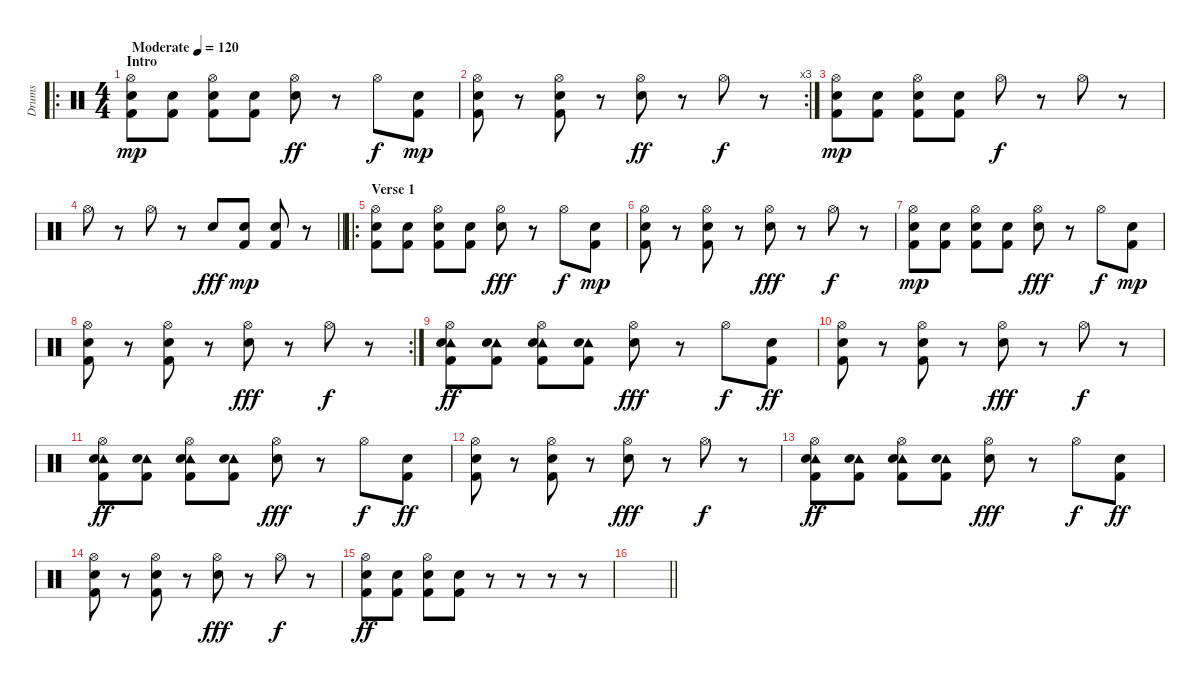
\track ("Drums" "Drums") {instrument percussion}
\staff {score}
\articulation defaults
\ro
\ts (4 4)
\section ("" "Intro")
\tempo (120 "Moderate")
\clef neutral
\ks c
("Hi-Hat (open)" "Electric Snare (hit)" "Kick (hit) 2").8{dy mp} ("Electric Snare (hit)" "Kick (hit) 2").8 ("Hi-Hat (open)" "Electric Snare (hit)" "Kick (hit) 2").8 ("Electric Snare (hit)" "Kick (hit) 2").8 ("Hi-Hat (open)" "Electric Snare (hit)").8{dy ff} r.8 "Hi-Hat (open)".8{dy f} ("Electric Snare (hit)" "Kick (hit) 2").8{dy mp} |
\rc 3
("Hi-Hat (open)" "Electric Snare (hit)" "Kick (hit) 2").8 r.8 ("Hi-Hat (open)" "Electric Snare (hit)" "Kick (hit) 2").8 r.8 ("Hi-Hat (open)" "Electric Snare (hit)").8{dy ff} r.8 "Hi-Hat (open)".8{dy f} r.8 |
("Hi-Hat (open)" "Electric Snare (hit)" "Kick (hit) 2").8{dy mp} ("Electric Snare (hit)" "Kick (hit) 2").8 ("Hi-Hat (open)" "Electric Snare (hit)" "Kick (hit) 2").8 ("Electric Snare (hit)" "Kick (hit) 2").8 "Hi-Hat (open)".8{dy f} r.8 "Hi-Hat (open)".8 r.8 |
\barLineRight lightlight "Hi-Hat (open)".8
r.8 "Hi-Hat (open)".8 r.8 "Electric Snare (hit)".8{dy fff} ("Electric Snare (hit)" "Kick (hit) 2").8{dy mp} ("Electric Snare (hit)" "Kick (hit) 2").8 r.8 |
\ro
\section ("" "Verse 1")
("Hi-Hat (open)" "Electric Snare (hit)" "Kick (hit) 2").8 ("Electric Snare (hit)" "Kick (hit) 2").8 ("Hi-Hat (open)" "Electric Snare (hit)" "Kick (hit) 2").8 ("Electric Snare (hit)" "Kick (hit) 2").8 ("Hi-Hat (open)" "Electric Snare (hit)").8{dy fff} r.8 "Hi-Hat (open)".8{dy f} ("Electric Snare (hit)" "Kick (hit) 2").8{dy mp} |
("Hi-Hat (open)" "Electric Snare (hit)" "Kick (hit) 2").8 r.8 ("Hi-Hat (open)" "Electric Snare (hit)" "Kick (hit) 2").8 r.8 ("Hi-Hat (open)" "Electric Snare (hit)").8{dy fff} r.8 "Hi-Hat (open)".8{dy f} r.8 |
("Hi-Hat (open)" "Electric Snare (hit)" "Kick (hit) 2").8{dy mp} ("Electric Snare (hit)" "Kick (hit) 2").8 ("Hi-Hat (open)" "Electric Snare (hit)" "Kick (hit) 2").8 ("Electric Snare (hit)" "Kick (hit) 2").8 ("Hi-Hat (open)" "Electric Snare (hit)").8{dy fff} r.8 "Hi-Hat (open)".8{dy f} ("Electric Snare (hit)" "Kick (hit) 2").8{dy mp} |
\rc 2
("Hi-Hat (open)" "Electric Snare (hit)" "Kick (hit) 2").8 r.8 ("Hi-Hat (open)" "Electric Snare (hit)" "Kick (hit) 2").8 r.8 ("Hi-Hat (open)" "Electric Snare (hit)").8{dy fff} r.8 "Hi-Hat (open)".8{dy f} r.8 |
("Hi-Hat (open)" "Tambourine (hit)" "Electric Snare (hit)" "Kick (hit) 2").8{dy ff} ("Tambourine (hit)" "Electric Snare (hit)" "Kick (hit) 2").8 ("Hi-Hat (open)" "Tambourine (hit)" "Electric Snare (hit)" "Kick (hit) 2").8 ("Tambourine (hit)" "Electric Snare (hit)" "Kick (hit) 2").8 ("Hi-Hat (open)" "Electric Snare (hit)").8{dy fff} r.8 "Hi-Hat (open)".8{dy f} ("Electric Snare (hit)" "Kick (hit) 2").8{dy ff} |
("Hi-Hat (open)" "Electric Snare (hit)" "Kick (hit) 2").8 r.8 ("Hi-Hat (open)" "Electric Snare (hit)" "Kick (hit) 2").8 r.8 ("Hi-Hat (open)" "Electric Snare (hit)").8{dy fff} r.8 "Hi-Hat (open)".8{dy f} r.8 |
("Hi-Hat (open)" "Tambourine (hit)" "Electric Snare (hit)" "Kick (hit) 2").8{dy ff} ("Tambourine (hit)" "Electric Snare (hit)" "Kick (hit) 2").8 ("Hi-Hat (open)" "Tambourine (hit)" "Electric Snare (hit)" "Kick (hit) 2").8 ("Tambourine (hit)" "Electric Snare (hit)" "Kick (hit) 2").8 ("Hi-Hat (open)" "Electric Snare (hit)").8{dy fff} r.8 "Hi-Hat (open)".8{dy f} ("Electric Snare (hit)" "Kick (hit) 2").8{dy ff} |
("Hi-Hat (open)" "Electric Snare (hit)" "Kick (hit) 2").8 r.8 ("Hi-Hat (open)" "Electric Snare (hit)" "Kick (hit) 2").8 r.8 ("Hi-Hat (open)" "Electric Snare (hit)").8{dy fff} r.8 "Hi-Hat (open)".8{dy f} r.8 |
("Hi-Hat (open)" "Tambourine (hit)" "Electric Snare (hit)" "Kick (hit) 2").8{dy ff} ("Tambourine (hit)" "Electric Snare (hit)" "Kick (hit) 2").8 ("Hi-Hat (open)" "Tambourine (hit)" "Electric Snare (hit)" "Kick (hit) 2").8 ("Tambourine (hit)" "Electric Snare (hit)" "Kick (hit) 2").8 ("Hi-Hat (open)" "Electric Snare (hit)").8{dy fff} r.8 "Hi-Hat (open)".8{dy f} ("Electric Snare (hit)" "Kick (hit) 2").8{dy ff} |
("Hi-Hat (open)" "Electric Snare (hit)" "Kick (hit) 2").8 r.8 ("Hi-Hat (open)" "Electric Snare (hit)" "Kick (hit) 2").8 r.8 ("Hi-Hat (open)" "Electric Snare (hit)").8{dy fff} r.8 "Hi-Hat (open)".8{dy f} r.8 |
("Hi-Hat (open)" "Electric Snare (hit)" "Kick (hit) 2").8{dy ff} ("Electric Snare (hit)" "Kick (hit) 2").8 ("Hi-Hat (open)" "Electric Snare (hit)" "Kick (hit) 2").8 ("Electric Snare (hit)" "Kick (hit) 2").8 r.8 r.8 r.8 r.8 |
\barLineRight lightlight
